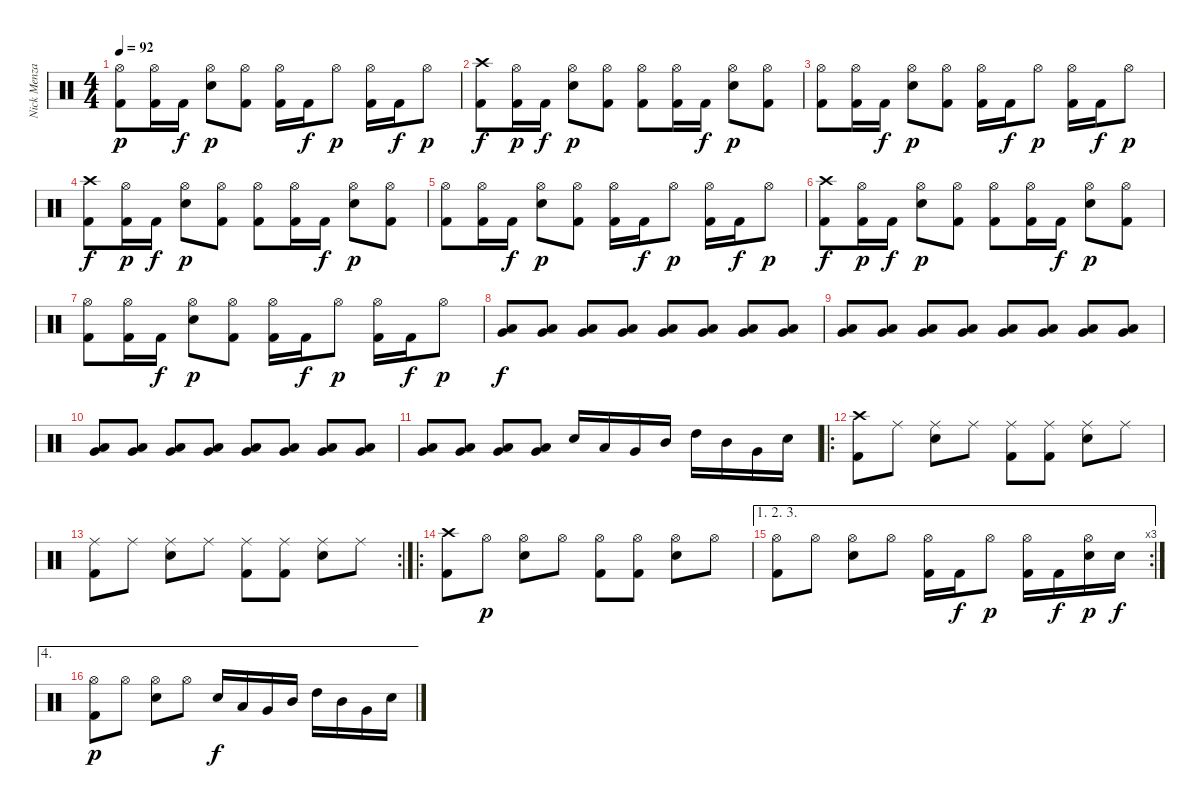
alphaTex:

\track ("Nick Menza" "Nick Menza") {instrument percussion}
\staff {score}
\articulation defaults
\ts (4 4)
\tempo 92
\clef neutral
\ks c
("Hi-Hat (open)" "Kick (hit) 2").8{dy p} ("Hi-Hat (open)" "Kick (hit) 2").16 "Kick (hit) 2".16{dy f} ("Hi-Hat (open)" "Electric Snare (hit)").8{dy p} ("Hi-Hat (open)" "Kick (hit) 2").8 ("Hi-Hat (open)" "Kick (hit) 2").16 "Kick (hit) 2".16{dy f} "Hi-Hat (open)".8{dy p} ("Hi-Hat (open)" "Kick (hit) 2").16 "Kick (hit) 2".16{dy f} "Hi-Hat (open)".8{dy p} |
("Crash high (hit)" "Kick (hit) 2").8{dy f} ("Hi-Hat (open)" "Kick (hit) 2").16{dy p} "Kick (hit) 2".16{dy f} ("Hi-Hat (open)" "Electric Snare (hit)").8{dy p} ("Hi-Hat (open)" "Kick (hit) 2").8 ("Hi-Hat (open)" "Kick (hit) 2").8 ("Hi-Hat (open)" "Kick (hit) 2").16 "Kick (hit) 2".16{dy f} ("Hi-Hat (open)" "Electric Snare (hit)").8{dy p} ("Hi-Hat (open)" "Kick (hit) 2").8 |
("Hi-Hat (open)" "Kick (hit) 2").8 ("Hi-Hat (open)" "Kick (hit) 2").16 "Kick (hit) 2".16{dy f} ("Hi-Hat (open)" "Electric Snare (hit)").8{dy p} ("Hi-Hat (open)" "Kick (hit) 2").8 ("Hi-Hat (open)" "Kick (hit) 2").16 "Kick (hit) 2".16{dy f} "Hi-Hat (open)".8{dy p} ("Hi-Hat (open)" "Kick (hit) 2").16 "Kick (hit) 2".16{dy f} "Hi-Hat (open)".8{dy p} |
("Crash high (hit)" "Kick (hit) 2").8{dy f} ("Hi-Hat (open)" "Kick (hit) 2").16{dy p} "Kick (hit) 2".16{dy f} ("Hi-Hat (open)" "Electric Snare (hit)").8{dy p} ("Hi-Hat (open)" "Kick (hit) 2").8 ("Hi-Hat (open)" "Kick (hit) 2").8 ("Hi-Hat (open)" "Kick (hit) 2").16 "Kick (hit) 2".16{dy f} ("Hi-Hat (open)" "Electric Snare (hit)").8{dy p} ("Hi-Hat (open)" "Kick (hit) 2").8 |
("Hi-Hat (open)" "Kick (hit) 2").8 ("Hi-Hat (open)" "Kick (hit) 2").16 "Kick (hit) 2".16{dy f} ("Hi-Hat (open)" "Electric Snare (hit)").8{dy p} ("Hi-Hat (open)" "Kick (hit) 2").8 ("Hi-Hat (open)" "Kick (hit) 2").16 "Kick (hit) 2".16{dy f} "Hi-Hat (open)".8{dy p} ("Hi-Hat (open)" "Kick (hit) 2").16 "Kick (hit) 2".16{dy f} "Hi-Hat (open)".8{dy p} |
("Crash high (hit)" "Kick (hit) 2").8{dy f} ("Hi-Hat (open)" "Kick (hit) 2").16{dy p} "Kick (hit) 2".16{dy f} ("Hi-Hat (open)" "Electric Snare (hit)").8{dy p} ("Hi-Hat (open)" "Kick (hit) 2").8 ("Hi-Hat (open)" "Kick (hit) 2").8 ("Hi-Hat (open)" "Kick (hit) 2").16 "Kick (hit) 2".16{dy f} ("Hi-Hat (open)" "Electric Snare (hit)").8{dy p} ("Hi-Hat (open)" "Kick (hit) 2").8 |
("Hi-Hat (open)" "Kick (hit) 2").8 ("Hi-Hat (open)" "Kick (hit) 2").16 "Kick (hit) 2".16{dy f} ("Hi-Hat (open)" "Electric Snare (hit)").8{dy p} ("Hi-Hat (open)" "Kick (hit) 2").8 ("Hi-Hat (open)" "Kick (hit) 2").16 "Kick (hit) 2".16{dy f} "Hi-Hat (open)".8{dy p} ("Hi-Hat (open)" "Kick (hit) 2").16 "Kick (hit) 2".16{dy f} "Hi-Hat (open)".8{dy p} |
("Low Floor Tom (hit)" "Very Low Tom (hit)").8{dy f} ("Low Floor Tom (hit)" "Very Low Tom (hit)").8 ("Low Floor Tom (hit)" "Very Low Tom (hit)").8 ("Low Floor Tom (hit)" "Very Low Tom (hit)").8 ("Low Floor Tom (hit)" "Very Low Tom (hit)").8 ("Low Floor Tom (hit)" "Very Low Tom (hit)").8 ("Low Floor Tom (hit)" "Very Low Tom (hit)").8 ("Low Floor Tom (hit)" "Very Low Tom (hit)").8 |
("Low Floor Tom (hit)" "Very Low Tom (hit)").8 ("Low Floor Tom (hit)" "Very Low Tom (hit)").8 ("Low Floor Tom (hit)" "Very Low Tom (hit)").8 ("Low Floor Tom (hit)" "Very Low Tom (hit)").8 ("Low Floor Tom (hit)" "Very Low Tom (hit)").8 ("Low Floor Tom (hit)" "Very Low Tom (hit)").8 ("Low Floor Tom (hit)" "Very Low Tom (hit)").8 ("Low Floor Tom (hit)" "Very Low Tom (hit)").8 |
("Low Floor Tom (hit)" "Very Low Tom (hit)").8 ("Low Floor Tom (hit)" "Very Low Tom (hit)").8 ("Low Floor Tom (hit)" "Very Low Tom (hit)").8 ("Low Floor Tom (hit)" "Very Low Tom (hit)").8 ("Low Floor Tom (hit)" "Very Low Tom (hit)").8 ("Low Floor Tom (hit)" "Very Low Tom (hit)").8 ("Low Floor Tom (hit)" "Very Low Tom (hit)").8 ("Low Floor Tom (hit)" "Very Low Tom (hit)").8 |
("Low Floor Tom (hit)" "Very Low Tom (hit)").8 ("Low Floor Tom (hit)" "Very Low Tom (hit)").8 ("Low Floor Tom (hit)" "Very Low Tom (hit)").8 ("Low Floor Tom (hit)" "Very Low Tom (hit)").8 "Electric Snare (hit)".16 "Low Tom (hit)".16 "Very Low Tom (hit)".16 "Mid Tom (hit)".16 "High Tom (hit)".16 "Mid Tom (hit)".16 "Very Low Tom (hit)".16 "Electric Snare (hit)".16 |
\ro
("Crash high (hit)" "Kick (hit) 2").8 "Ride (middle)".8 ("Ride (middle)" "Electric Snare (hit)").8 "Ride (middle)".8 ("Ride (middle)" "Kick (hit) 2").8 ("Ride (middle)" "Kick (hit) 2").8 ("Ride (middle)" "Electric Snare (hit)").8 "Ride (middle)".8 |
\rc 2
("Ride (middle)" "Kick (hit) 2").8 "Ride (middle)".8 ("Ride (middle)" "Electric Snare (hit)").8 "Ride (middle)".8 ("Ride (middle)" "Kick (hit) 2").8 ("Ride (middle)" "Kick (hit) 2").8 ("Ride (middle)" "Electric Snare (hit)").8 "Ride (middle)".8 |
\ro
("Crash high (hit)" "Kick (hit) 2").8 "Hi-Hat (open)".8{dy p} ("Hi-Hat (open)" "Electric Snare (hit)").8 "Hi-Hat (open)".8 ("Hi-Hat (open)" "Kick (hit) 2").8 ("Hi-Hat (open)" "Kick (hit) 2").8 ("Hi-Hat (open)" "Electric Snare (hit)").8 "Hi-Hat (open)".8 |
\ae (1 2 3)
\rc 3
("Hi-Hat (open)" "Kick (hit) 2").8 "Hi-Hat (open)".8 ("Hi-Hat (open)" "Electric Snare (hit)").8 "Hi-Hat (open)".8 ("Hi-Hat (open)" "Kick (hit) 2").16 "Kick (hit) 2".16{dy f} "Hi-Hat (open)".8{dy p} ("Hi-Hat (open)" "Kick (hit) 2").16 "Kick (hit) 2".16{dy f} ("Hi-Hat (open)" "Electric Snare (hit)").16{dy p} "Electric Snare (hit)".16{dy f} |
\ae 4
("Hi-Hat (open)" "Kick (hit) 2").8{dy p} "Hi-Hat (open)".8 ("Hi-Hat (open)" "Electric Snare (hit)").8 "Hi-Hat (open)".8 "Electric Snare (hit)".16{dy f} "Low Tom (hit)".16 "Very Low Tom (hit)".16 "Mid Tom (hit)".16 "High Tom (hit)".16 "Mid Tom (hit)".16 "Very Low Tom (hit)".16 "Electric Snare (hit)".16
